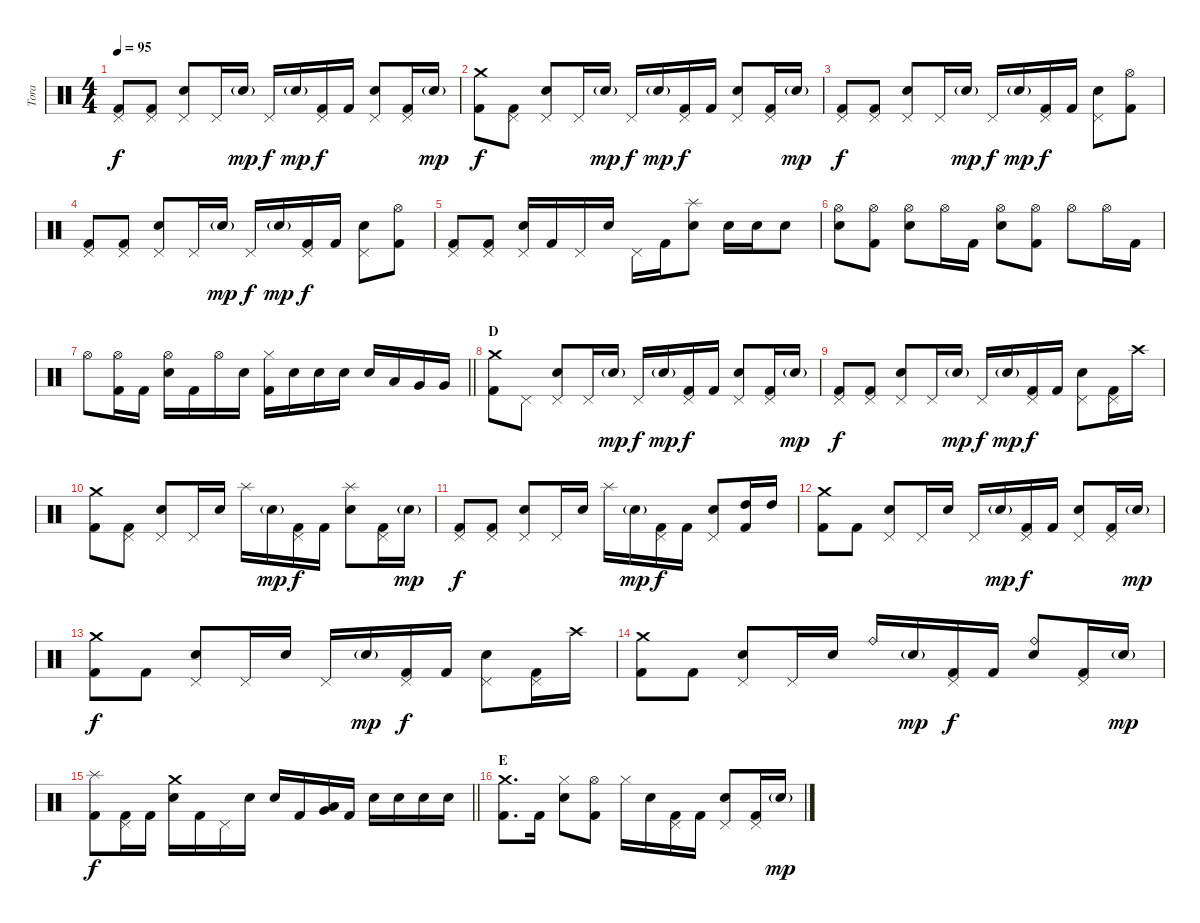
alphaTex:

\track ("Tora" "Tora") {instrument percussion}
\staff {score}
\articulation defaults
\ts (4 4)
\tempo 95
\clef neutral
\ks c
("Pedal Hi-Hat (hit)" "Kick (hit) 2").8{dy f} ("Pedal Hi-Hat (hit)" "Kick (hit) 2").8 ("Pedal Hi-Hat (hit)" "Electric Snare (hit)").8 "Pedal Hi-Hat (hit)".16 "Electric Snare (hit)"{g}.16{dy mp} "Pedal Hi-Hat (hit)".16{dy f} "Electric Snare (hit)"{g}.16{dy mp} ("Pedal Hi-Hat (hit)" "Kick (hit) 2").16{dy f} "Kick (hit) 2".16 ("Pedal Hi-Hat (hit)" "Electric Snare (hit)").8 ("Pedal Hi-Hat (hit)" "Kick (hit) 2").16 "Electric Snare (hit)"{g}.16{dy mp} |
("Crash medium (hit)" "Kick (hit) 2").8{dy f} ("Pedal Hi-Hat (hit)" "Kick (hit) 2").8 ("Pedal Hi-Hat (hit)" "Electric Snare (hit)").8 "Pedal Hi-Hat (hit)".16 "Electric Snare (hit)"{g}.16{dy mp} "Pedal Hi-Hat (hit)".16{dy f} "Electric Snare (hit)"{g}.16{dy mp} ("Pedal Hi-Hat (hit)" "Kick (hit) 2").16{dy f} "Kick (hit) 2".16 ("Pedal Hi-Hat (hit)" "Electric Snare (hit)").8 ("Pedal Hi-Hat (hit)" "Kick (hit) 2").16 "Electric Snare (hit)"{g}.16{dy mp} |
("Pedal Hi-Hat (hit)" "Kick (hit) 2").8{dy f} ("Pedal Hi-Hat (hit)" "Kick (hit) 2").8 ("Pedal Hi-Hat (hit)" "Electric Snare (hit)").8 "Pedal Hi-Hat (hit)".16 "Electric Snare (hit)"{g}.16{dy mp} "Pedal Hi-Hat (hit)".16{dy f} "Electric Snare (hit)"{g}.16{dy mp} ("Pedal Hi-Hat (hit)" "Kick (hit) 2").16{dy f} "Kick (hit) 2".16 ("Pedal Hi-Hat (hit)" "Electric Snare (hit)").8 ("Hi-Hat (open)" "Kick (hit) 2").8 |
("Pedal Hi-Hat (hit)" "Kick (hit) 2").8 ("Pedal Hi-Hat (hit)" "Kick (hit) 2").8 ("Pedal Hi-Hat (hit)" "Electric Snare (hit)").8 "Pedal Hi-Hat (hit)".16 "Electric Snare (hit)"{g}.16{dy mp} "Pedal Hi-Hat (hit)".16{dy f} "Electric Snare (hit)"{g}.16{dy mp} ("Pedal Hi-Hat (hit)" "Kick (hit) 2").16{dy f} "Kick (hit) 2".16 ("Pedal Hi-Hat (hit)" "Electric Snare (hit)").8 ("Hi-Hat (open)" "Kick (hit) 2").8 |
("Pedal Hi-Hat (hit)" "Kick (hit) 2").8 ("Pedal Hi-Hat (hit)" "Kick (hit) 2").8 ("Pedal Hi-Hat (hit)" "Electric Snare (hit)").16 "Kick (hit) 2".16 "Pedal Hi-Hat (hit)".16 "Electric Snare (hit)".16 "Pedal Hi-Hat (hit)".16 "Kick (hit) 2".16 ("Splash (hit)" "Electric Snare (hit)").8 "Electric Snare (hit)".16 "Electric Snare (hit)".16 "Electric Snare (hit)".8 |
("Hi-Hat (open)" "Electric Snare (hit)").8 ("Hi-Hat (open)" "Kick (hit) 2").8 ("Hi-Hat (open)" "Electric Snare (hit)").8 "Hi-Hat (open)".16 "Kick (hit) 2".16 ("Hi-Hat (open)" "Electric Snare (hit)").8 ("Hi-Hat (open)" "Kick (hit) 2").8 "Hi-Hat (open)".8 "Hi-Hat (open)".16 "Kick (hit) 2".16 |
\barLineRight lightlight "Hi-Hat (open)".8
("Hi-Hat (open)" "Kick (hit) 2").16 "Kick (hit) 2".16 ("Hi-Hat (open)" "Electric Snare (hit)").16 "Kick (hit) 2".16 "Hi-Hat (open)".16 "Electric Snare (hit)".16 ("Hi-Hat (closed)" "Kick (hit) 2").16 "Electric Snare (hit)".16 "Electric Snare (hit)".16 "Electric Snare (hit)".16 "Electric Snare (hit)".16 "Low Tom (hit)".16 "Very Low Tom (hit)".16 "Very Low Tom (hit)".16 |
\section ("" "D")
("Crash medium (hit)" "Kick (hit) 2").8 "Pedal Hi-Hat (hit)".8 ("Pedal Hi-Hat (hit)" "Electric Snare (hit)").8 "Pedal Hi-Hat (hit)".16 "Electric Snare (hit)"{g}.16{dy mp} "Pedal Hi-Hat (hit)".16{dy f} "Electric Snare (hit)"{g}.16{dy mp} ("Pedal Hi-Hat (hit)" "Kick (hit) 2").16{dy f} "Kick (hit) 2".16 ("Pedal Hi-Hat (hit)" "Electric Snare (hit)").8 ("Pedal Hi-Hat (hit)" "Kick (hit) 2").16 "Electric Snare (hit)"{g}.16{dy mp} |
("Pedal Hi-Hat (hit)" "Kick (hit) 2").8{dy f} ("Pedal Hi-Hat (hit)" "Kick (hit) 2").8 ("Pedal Hi-Hat (hit)" "Electric Snare (hit)").8 "Pedal Hi-Hat (hit)".16 "Electric Snare (hit)"{g}.16{dy mp} "Pedal Hi-Hat (hit)".16{dy f} "Electric Snare (hit)"{g}.16{dy mp} ("Pedal Hi-Hat (hit)" "Kick (hit) 2").16{dy f} "Kick (hit) 2".16 ("Pedal Hi-Hat (hit)" "Electric Snare (hit)").8 ("Pedal Hi-Hat (hit)" "Kick (hit) 2").16 "Crash high (hit)".16 |
("Crash medium (hit)" "Kick (hit) 2").8 ("Pedal Hi-Hat (hit)" "Kick (hit) 2").8 ("Pedal Hi-Hat (hit)" "Electric Snare (hit)").8 "Pedal Hi-Hat (hit)".16 "Electric Snare (hit)".16 "Splash (hit)".16 "Electric Snare (hit)"{g}.16{dy mp} ("Pedal Hi-Hat (hit)" "Kick (hit) 2").16{dy f} "Kick (hit) 2".16 ("Splash (hit)" "Electric Snare (hit)").8 ("Pedal Hi-Hat (hit)" "Kick (hit) 2").16 "Electric Snare (hit)"{g}.16{dy mp} |
("Pedal Hi-Hat (hit)" "Kick (hit) 2").8{dy f} ("Pedal Hi-Hat (hit)" "Kick (hit) 2").8 ("Pedal Hi-Hat (hit)" "Electric Snare (hit)").8 "Pedal Hi-Hat (hit)".16 "Electric Snare (hit)".16 "Splash (hit)".16 "Electric Snare (hit)"{g}.16{dy mp} ("Pedal Hi-Hat (hit)" "Kick (hit) 2").16{dy f} "Kick (hit) 2".16 ("Pedal Hi-Hat (hit)" "Electric Snare (hit)").8 ("High Tom (hit)" "Kick (hit) 2").16 "High Tom (hit)".16 |
("Crash medium (hit)" "Kick (hit) 2").8 "Kick (hit) 2".8 ("Pedal Hi-Hat (hit)" "Electric Snare (hit)").8 "Pedal Hi-Hat (hit)".16 "Electric Snare (hit)".16 "Pedal Hi-Hat (hit)".16 "Electric Snare (hit)"{g}.16{dy mp} ("Pedal Hi-Hat (hit)" "Kick (hit) 2").16{dy f} "Kick (hit) 2".16 ("Pedal Hi-Hat (hit)" "Electric Snare (hit)").8 ("Pedal Hi-Hat (hit)" "Kick (hit) 2").16 "Electric Snare (hit)"{g}.16{dy mp} |
("Crash medium (hit)" "Kick (hit) 2").8{dy f} "Kick (hit) 2".8 ("Pedal Hi-Hat (hit)" "Electric Snare (hit)").8 "Pedal Hi-Hat (hit)".16 "Electric Snare (hit)".16 "Pedal Hi-Hat (hit)".16 "Electric Snare (hit)"{g}.16{dy mp} ("Pedal Hi-Hat (hit)" "Kick (hit) 2").16{dy f} "Kick (hit) 2".16 ("Pedal Hi-Hat (hit)" "Electric Snare (hit)").8 ("Pedal Hi-Hat (hit)" "Kick (hit) 2").16 "Crash high (hit)".16 |
("Crash medium (hit)" "Kick (hit) 2").8 "Kick (hit) 2".8 ("Pedal Hi-Hat (hit)" "Electric Snare (hit)").8 "Pedal Hi-Hat (hit)".16 "Electric Snare (hit)".16 "Ride (bell)".16 "Electric Snare (hit)"{g}.16{dy mp} ("Pedal Hi-Hat (hit)" "Kick (hit) 2").16{dy f} "Kick (hit) 2".16 ("Ride (bell)" "Electric Snare (hit)").8 ("Pedal Hi-Hat (hit)" "Kick (hit) 2").16 "Electric Snare (hit)"{g}.16{dy mp} |
\barLineRight lightlight
("Splash (hit)" "Kick (hit) 2").8{dy f} ("Pedal Hi-Hat (hit)" "Kick (hit) 2").16 "Kick (hit) 2".16 ("Crash medium (hit)" "Electric Snare (hit)").16 "Kick (hit) 2".16 "Pedal Hi-Hat (hit)".16 "Electric Snare (hit)".16 "Electric Snare (hit)".16 "Kick (hit) 2".16 ("Low Tom (hit)" "Very Low Tom (hit)").16 "Kick (hit) 2".16 "Electric Snare (hit)".16 "Electric Snare (hit)".16 "Electric Snare (hit)".16 "Electric Snare (hit)".16 |
\section ("" "E")
("Crash medium (hit)" "Kick (hit) 2").8{d} "Kick (hit) 2".16 ("Hi-Hat (closed)" "Electric Snare (hit)").8 ("Hi-Hat (open)" "Kick (hit) 2").8 "Hi-Hat (closed)".16 "Electric Snare (hit)".16 ("Pedal Hi-Hat (hit)" "Kick (hit) 2").16 "Kick (hit) 2".16 ("Pedal Hi-Hat (hit)" "Electric Snare (hit)").8 ("Pedal Hi-Hat (hit)" "Kick (hit) 2").16 "Electric Snare (hit)"{g}.16{dy mp}
